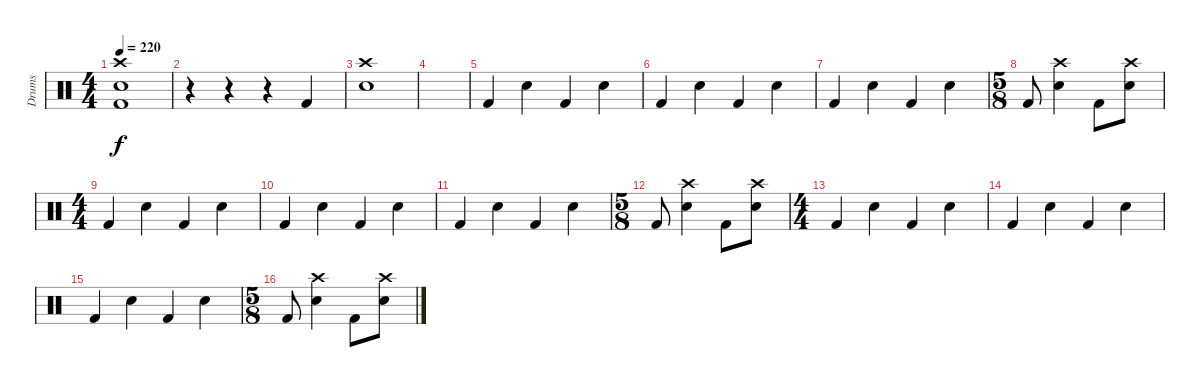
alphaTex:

\track ("Drums" "Drums") {instrument percussion}
\staff {score}
\articulation defaults
\ts (4 4)
\tempo 220
\clef neutral
\ks c
("Kick (hit) 2" "Electric Snare (hit)" "Crash high (hit)").1{dy f} |
r.4 r.4 r.4 "Kick (hit) 2".4 |
("Crash high (hit)" "Electric Snare (hit)").1 |
|
"Kick (hit) 2".4 "Electric Snare (hit)".4 "Kick (hit) 2".4 "Electric Snare (hit)".4 |
"Kick (hit) 2".4 "Electric Snare (hit)".4 "Kick (hit) 2".4 "Electric Snare (hit)".4 |
"Kick (hit) 2".4 "Electric Snare (hit)".4 "Kick (hit) 2".4 "Electric Snare (hit)".4 |
\ts (5 8)
"Kick (hit) 2".8 ("Electric Snare (hit)" "Crash high (hit)").4 "Kick (hit) 2".8 ("Crash high (hit)" "Electric Snare (hit)").8 |
\ts (4 4)
"Kick (hit) 2".4 "Electric Snare (hit)".4 "Kick (hit) 2".4 "Electric Snare (hit)".4 |
"Kick (hit) 2".4 "Electric Snare (hit)".4 "Kick (hit) 2".4 "Electric Snare (hit)".4 |
"Kick (hit) 2".4 "Electric Snare (hit)".4 "Kick (hit) 2".4 "Electric Snare (hit)".4 |
\ts (5 8)
"Kick (hit) 2".8 ("Electric Snare (hit)" "Crash high (hit)").4 "Kick (hit) 2".8 ("Crash high (hit)" "Electric Snare (hit)").8 |
\ts (4 4)
"Kick (hit) 2".4 "Electric Snare (hit)".4 "Kick (hit) 2".4 "Electric Snare (hit)".4 |
"Kick (hit) 2".4 "Electric Snare (hit)".4 "Kick (hit) 2".4 "Electric Snare (hit)".4 |
"Kick (hit) 2".4 "Electric Snare (hit)".4 "Kick (hit) 2".4 "Electric Snare (hit)".4 |
\ts (5 8)
"Kick (hit) 2".8 ("Electric Snare (hit)" "Crash high (hit)").4 "Kick (hit) 2".8 ("Crash high (hit)" "Electric Snare (hit)").8
